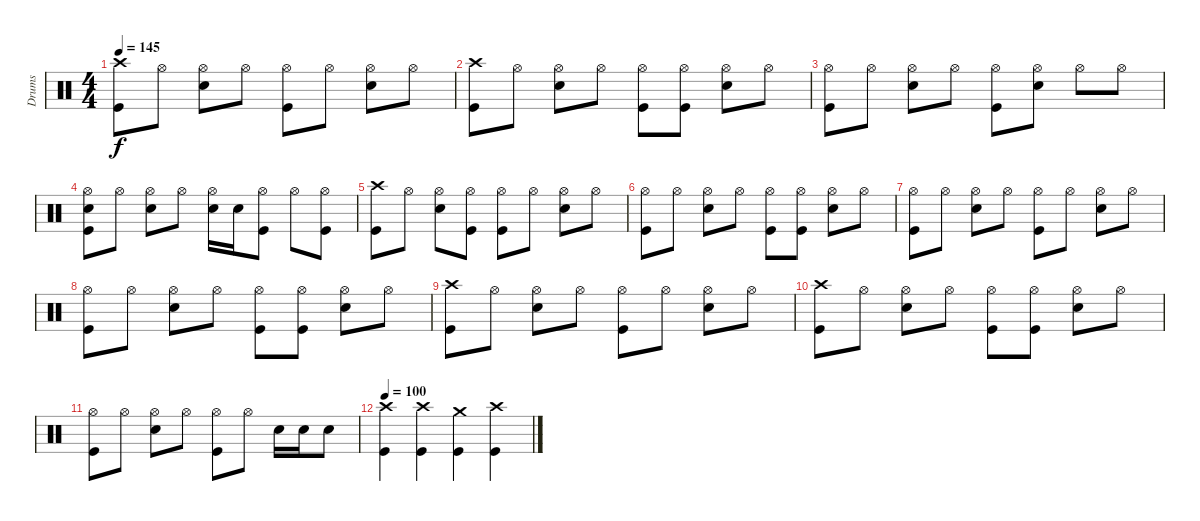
\track ("Drums" "Drums") {instrument percussion}
\staff {score}
\articulation defaults
\ts (4 4)
\tempo 145
\clef neutral
\ks c
("Crash high (hit)" "Kick (hit)").8{dy f} "Hi-Hat (open)".8 ("Hi-Hat (open)" "Snare (hit) 2").8 "Hi-Hat (open)".8 ("Hi-Hat (open)" "Kick (hit)").8 "Hi-Hat (open)".8 ("Hi-Hat (open)" "Snare (hit) 2").8 "Hi-Hat (open)".8 |
("Crash high (hit)" "Kick (hit)").8 "Hi-Hat (open)".8 ("Hi-Hat (open)" "Snare (hit) 2").8 "Hi-Hat (open)".8 ("Hi-Hat (open)" "Kick (hit)").8 ("Hi-Hat (open)" "Kick (hit)").8 ("Hi-Hat (open)" "Snare (hit) 2").8 "Hi-Hat (open)".8 |
("Hi-Hat (open)" "Kick (hit)").8 "Hi-Hat (open)".8 ("Hi-Hat (open)" "Snare (hit) 2").8 "Hi-Hat (open)".8 ("Hi-Hat (open)" "Kick (hit)").8 ("Hi-Hat (open)" "Snare (hit) 2").8 "Hi-Hat (open)".8 "Hi-Hat (open)".8 |
("Hi-Hat (open)" "Snare (hit) 2" "Kick (hit)").8 "Hi-Hat (open)".8 ("Hi-Hat (open)" "Snare (hit) 2").8 "Hi-Hat (open)".8 ("Hi-Hat (open)" "Snare (hit) 2").16 "Snare (hit) 2".16 ("Hi-Hat (open)" "Kick (hit)").8 "Hi-Hat (open)".8 ("Hi-Hat (open)" "Kick (hit)").8 |
("Crash high (hit)" "Kick (hit)").8 "Hi-Hat (open)".8 ("Hi-Hat (open)" "Snare (hit) 2").8 ("Hi-Hat (open)" "Kick (hit)").8 ("Hi-Hat (open)" "Kick (hit)").8 "Hi-Hat (open)".8 ("Hi-Hat (open)" "Snare (hit) 2").8 "Hi-Hat (open)".8 |
("Hi-Hat (open)" "Kick (hit)").8 "Hi-Hat (open)".8 ("Hi-Hat (open)" "Snare (hit) 2").8 "Hi-Hat (open)".8 ("Hi-Hat (open)" "Kick (hit)").8 ("Hi-Hat (open)" "Kick (hit)").8 ("Hi-Hat (open)" "Snare (hit) 2").8 "Hi-Hat (open)".8 |
("Hi-Hat (open)" "Kick (hit)").8 "Hi-Hat (open)".8 ("Hi-Hat (open)" "Snare (hit) 2").8 "Hi-Hat (open)".8 ("Hi-Hat (open)" "Kick (hit)").8 "Hi-Hat (open)".8 ("Hi-Hat (open)" "Snare (hit) 2").8 "Hi-Hat (open)".8 |
("Hi-Hat (open)" "Kick (hit)").8 "Hi-Hat (open)".8 ("Hi-Hat (open)" "Snare (hit) 2").8 "Hi-Hat (open)".8 ("Hi-Hat (open)" "Kick (hit)").8 ("Hi-Hat (open)" "Kick (hit)").8 ("Hi-Hat (open)" "Snare (hit) 2").8 "Hi-Hat (open)".8 |
("Crash high (hit)" "Kick (hit)").8 "Hi-Hat (open)".8 ("Hi-Hat (open)" "Snare (hit) 2").8 "Hi-Hat (open)".8 ("Hi-Hat (open)" "Kick (hit)").8 "Hi-Hat (open)".8 ("Hi-Hat (open)" "Snare (hit) 2").8 "Hi-Hat (open)".8 |
("Crash high (hit)" "Kick (hit)").8 "Hi-Hat (open)".8 ("Hi-Hat (open)" "Snare (hit) 2").8 "Hi-Hat (open)".8 ("Hi-Hat (open)" "Kick (hit)").8 ("Hi-Hat (open)" "Kick (hit)").8 ("Hi-Hat (open)" "Snare (hit) 2").8 "Hi-Hat (open)".8 |
("Hi-Hat (open)" "Kick (hit)").8 "Hi-Hat (open)".8 ("Hi-Hat (open)" "Snare (hit) 2").8 "Hi-Hat (open)".8 ("Hi-Hat (open)" "Kick (hit)").8 "Hi-Hat (open)".8 "Snare (hit) 2".16 "Snare (hit) 2".16 "Snare (hit) 2".8 |
\tempo 105
\tempo 100
("Crash high (hit)" "Kick (hit)").4 ("Crash high (hit)" "Kick (hit)").4 ("Crash medium (hit)" "Kick (hit)").4 ("Crash high (hit)" "Kick (hit)").4
